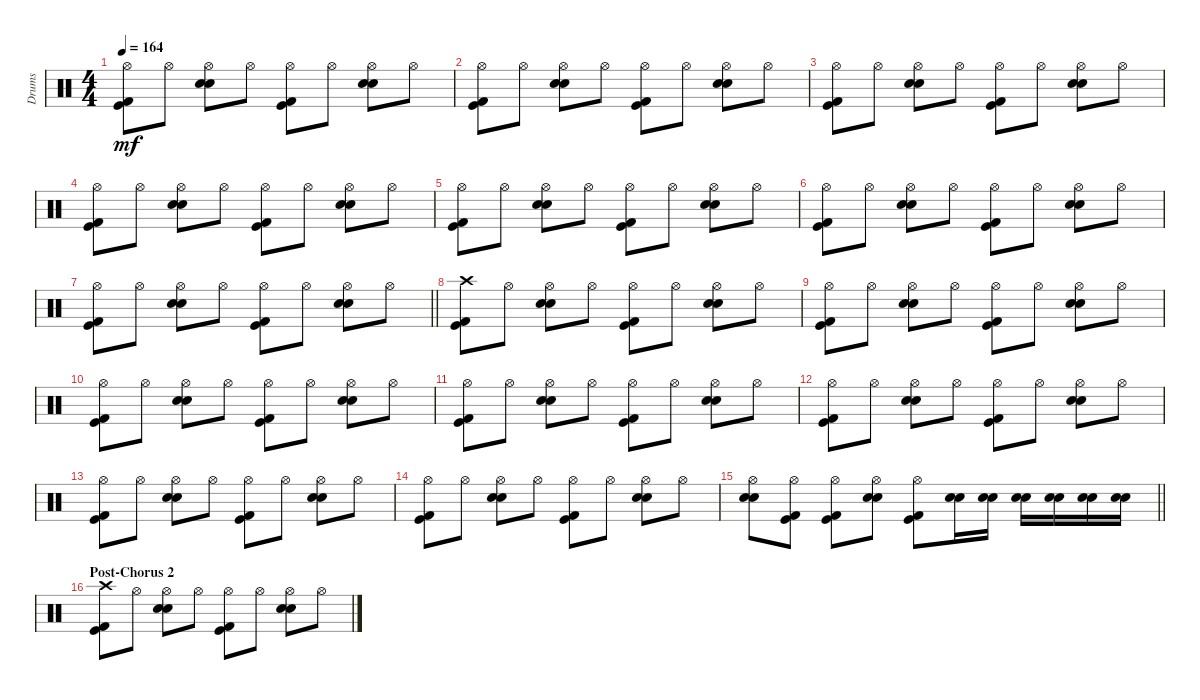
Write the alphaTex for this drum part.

\track ("Drums" "Drums") {instrument percussion}
\staff {score}
\articulation defaults
\ts (4 4)
\tempo 164
\clef neutral
\ks c
("Hi-Hat (open)" "Kick (hit) 2" "Kick (hit)").8{dy mf} "Hi-Hat (open)".8 ("Hi-Hat (open)" "Snare (hit) 2" "Electric Snare (hit)").8 "Hi-Hat (open)".8 ("Hi-Hat (open)" "Kick (hit) 2" "Kick (hit)").8 "Hi-Hat (open)".8 ("Hi-Hat (open)" "Snare (hit) 2" "Electric Snare (hit)").8 "Hi-Hat (open)".8 |
("Hi-Hat (open)" "Kick (hit) 2" "Kick (hit)").8 "Hi-Hat (open)".8 ("Hi-Hat (open)" "Snare (hit) 2" "Electric Snare (hit)").8 "Hi-Hat (open)".8 ("Hi-Hat (open)" "Kick (hit) 2" "Kick (hit)").8 "Hi-Hat (open)".8 ("Hi-Hat (open)" "Snare (hit) 2" "Electric Snare (hit)").8 "Hi-Hat (open)".8 |
("Hi-Hat (open)" "Kick (hit) 2" "Kick (hit)").8 "Hi-Hat (open)".8 ("Hi-Hat (open)" "Snare (hit) 2" "Electric Snare (hit)").8 "Hi-Hat (open)".8 ("Hi-Hat (open)" "Kick (hit) 2" "Kick (hit)").8 "Hi-Hat (open)".8 ("Hi-Hat (open)" "Snare (hit) 2" "Electric Snare (hit)").8 "Hi-Hat (open)".8 |
("Hi-Hat (open)" "Kick (hit) 2" "Kick (hit)").8 "Hi-Hat (open)".8 ("Hi-Hat (open)" "Snare (hit) 2" "Electric Snare (hit)").8 "Hi-Hat (open)".8 ("Hi-Hat (open)" "Kick (hit) 2" "Kick (hit)").8 "Hi-Hat (open)".8 ("Hi-Hat (open)" "Snare (hit) 2" "Electric Snare (hit)").8 "Hi-Hat (open)".8 |
("Hi-Hat (open)" "Kick (hit) 2" "Kick (hit)").8 "Hi-Hat (open)".8 ("Hi-Hat (open)" "Snare (hit) 2" "Electric Snare (hit)").8 "Hi-Hat (open)".8 ("Hi-Hat (open)" "Kick (hit) 2" "Kick (hit)").8 "Hi-Hat (open)".8 ("Hi-Hat (open)" "Snare (hit) 2" "Electric Snare (hit)").8 "Hi-Hat (open)".8 |
("Hi-Hat (open)" "Kick (hit) 2" "Kick (hit)").8 "Hi-Hat (open)".8 ("Hi-Hat (open)" "Snare (hit) 2" "Electric Snare (hit)").8 "Hi-Hat (open)".8 ("Hi-Hat (open)" "Kick (hit) 2" "Kick (hit)").8 "Hi-Hat (open)".8 ("Hi-Hat (open)" "Snare (hit) 2" "Electric Snare (hit)").8 "Hi-Hat (open)".8 |
\barLineRight lightlight
("Hi-Hat (open)" "Kick (hit) 2" "Kick (hit)").8 "Hi-Hat (open)".8 ("Hi-Hat (open)" "Snare (hit) 2" "Electric Snare (hit)").8 "Hi-Hat (open)".8 ("Hi-Hat (open)" "Kick (hit) 2" "Kick (hit)").8 "Hi-Hat (open)".8 ("Hi-Hat (open)" "Snare (hit) 2" "Electric Snare (hit)").8 "Hi-Hat (open)".8 |
("Crash high (hit)" "Kick (hit) 2" "Kick (hit)").8 "Hi-Hat (open)".8 ("Hi-Hat (open)" "Snare (hit) 2" "Electric Snare (hit)").8 "Hi-Hat (open)".8 ("Hi-Hat (open)" "Kick (hit) 2" "Kick (hit)").8 "Hi-Hat (open)".8 ("Hi-Hat (open)" "Snare (hit) 2" "Electric Snare (hit)").8 "Hi-Hat (open)".8 |
("Hi-Hat (open)" "Kick (hit) 2" "Kick (hit)").8 "Hi-Hat (open)".8 ("Hi-Hat (open)" "Snare (hit) 2" "Electric Snare (hit)").8 "Hi-Hat (open)".8 ("Hi-Hat (open)" "Kick (hit) 2" "Kick (hit)").8 "Hi-Hat (open)".8 ("Hi-Hat (open)" "Snare (hit) 2" "Electric Snare (hit)").8 "Hi-Hat (open)".8 |
("Hi-Hat (open)" "Kick (hit) 2" "Kick (hit)").8 "Hi-Hat (open)".8 ("Hi-Hat (open)" "Snare (hit) 2" "Electric Snare (hit)").8 "Hi-Hat (open)".8 ("Hi-Hat (open)" "Kick (hit) 2" "Kick (hit)").8 "Hi-Hat (open)".8 ("Hi-Hat (open)" "Snare (hit) 2" "Electric Snare (hit)").8 "Hi-Hat (open)".8 |
("Hi-Hat (open)" "Kick (hit) 2" "Kick (hit)").8 "Hi-Hat (open)".8 ("Hi-Hat (open)" "Snare (hit) 2" "Electric Snare (hit)").8 "Hi-Hat (open)".8 ("Hi-Hat (open)" "Kick (hit) 2" "Kick (hit)").8 "Hi-Hat (open)".8 ("Hi-Hat (open)" "Snare (hit) 2" "Electric Snare (hit)").8 "Hi-Hat (open)".8 |
("Hi-Hat (open)" "Kick (hit) 2" "Kick (hit)").8 "Hi-Hat (open)".8 ("Hi-Hat (open)" "Snare (hit) 2" "Electric Snare (hit)").8 "Hi-Hat (open)".8 ("Hi-Hat (open)" "Kick (hit) 2" "Kick (hit)").8 "Hi-Hat (open)".8 ("Hi-Hat (open)" "Snare (hit) 2" "Electric Snare (hit)").8 "Hi-Hat (open)".8 |
("Hi-Hat (open)" "Kick (hit) 2" "Kick (hit)").8 "Hi-Hat (open)".8 ("Hi-Hat (open)" "Snare (hit) 2" "Electric Snare (hit)").8 "Hi-Hat (open)".8 ("Hi-Hat (open)" "Kick (hit) 2" "Kick (hit)").8 "Hi-Hat (open)".8 ("Hi-Hat (open)" "Snare (hit) 2" "Electric Snare (hit)").8 "Hi-Hat (open)".8 |
("Hi-Hat (open)" "Kick (hit) 2" "Kick (hit)").8 "Hi-Hat (open)".8 ("Hi-Hat (open)" "Snare (hit) 2" "Electric Snare (hit)").8 "Hi-Hat (open)".8 ("Hi-Hat (open)" "Kick (hit) 2" "Kick (hit)").8 "Hi-Hat (open)".8 ("Hi-Hat (open)" "Snare (hit) 2" "Electric Snare (hit)").8 "Hi-Hat (open)".8 |
\barLineRight lightlight
("Hi-Hat (open)" "Snare (hit) 2" "Electric Snare (hit)").8 ("Hi-Hat (open)" "Kick (hit) 2" "Kick (hit)").8 ("Hi-Hat (open)" "Kick (hit) 2" "Kick (hit)").8 ("Hi-Hat (open)" "Snare (hit) 2" "Electric Snare (hit)").8 ("Hi-Hat (open)" "Kick (hit) 2" "Kick (hit)").8 ("Snare (hit) 2" "Electric Snare (hit)").16 ("Snare (hit) 2" "Electric Snare (hit)").16 ("Snare (hit) 2" "Electric Snare (hit)").16 ("Snare (hit) 2" "Electric Snare (hit)").16 ("Snare (hit) 2" "Electric Snare (hit)").16 ("Snare (hit) 2" "Electric Snare (hit)").16 |
\section ("" "Post-Chorus 2")
("Crash high (hit)" "Kick (hit) 2" "Kick (hit)").8 "Hi-Hat (open)".8 ("Hi-Hat (open)" "Snare (hit) 2" "Electric Snare (hit)").8 "Hi-Hat (open)".8 ("Hi-Hat (open)" "Kick (hit) 2" "Kick (hit)").8 "Hi-Hat (open)".8 ("Hi-Hat (open)" "Snare (hit) 2" "Electric Snare (hit)").8 "Hi-Hat (open)".8
